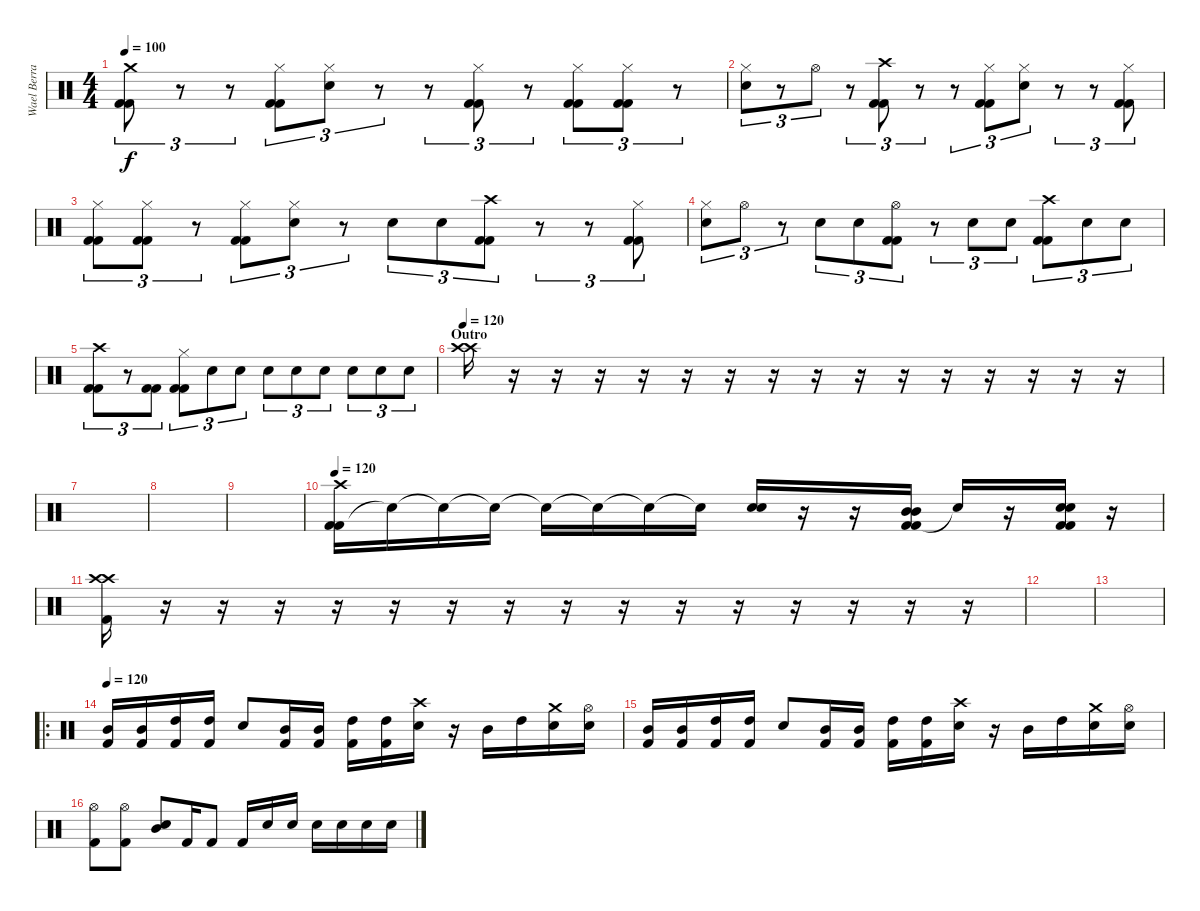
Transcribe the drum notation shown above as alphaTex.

\track ("Wael Berrais" "Wael Berra") {instrument percussion}
\staff {score}
\articulation defaults
\ts (4 4)
\tempo 100
\clef neutral
\ks c
("Crash medium (hit)" "Kick (hit) 2" "Kick (hit) 2").8{tu (3 2) dy f} r.8{tu (3 2)} r.8{tu (3 2)} ("Hi-Hat (closed)" "Kick (hit) 2" "Kick (hit) 2").8{tu (3 2)} ("Hi-Hat (closed)" "Electric Snare (hit)").8{tu (3 2)} r.8{tu (3 2)} r.8{tu (3 2)} ("Kick (hit) 2" "Kick (hit) 2" "Hi-Hat (closed)").8{tu (3 2)} r.8{tu (3 2)} ("Hi-Hat (closed)" "Kick (hit) 2" "Kick (hit) 2").8{tu (3 2)} ("Hi-Hat (closed)" "Kick (hit) 2" "Kick (hit) 2").8{tu (3 2)} r.8{tu (3 2)} |
("Electric Snare (hit)" "Hi-Hat (closed)").8{tu (3 2)} r.8{tu (3 2)} "Hi-Hat (open)".8{tu (3 2)} r.8{tu (3 2)} ("Crash high (hit)" "Kick (hit) 2" "Kick (hit) 2").8{tu (3 2)} r.8{tu (3 2)} r.8{tu (3 2)} ("Hi-Hat (closed)" "Kick (hit) 2" "Kick (hit) 2").8{tu (3 2)} ("Hi-Hat (closed)" "Electric Snare (hit)").8{tu (3 2)} r.8{tu (3 2)} r.8{tu (3 2)} ("Kick (hit) 2" "Kick (hit) 2" "Hi-Hat (closed)").8{tu (3 2)} |
("Hi-Hat (closed)" "Kick (hit) 2" "Kick (hit) 2").8{tu (3 2)} ("Hi-Hat (closed)" "Kick (hit) 2" "Kick (hit) 2").8{tu (3 2)} r.8{tu (3 2)} ("Hi-Hat (closed)" "Kick (hit) 2" "Kick (hit) 2").8{tu (3 2)} ("Electric Snare (hit)" "Hi-Hat (closed)").8{tu (3 2)} r.8{tu (3 2)} "Electric Snare (hit)".8{tu (3 2)} "Electric Snare (hit)".8{tu (3 2)} ("Crash high (hit)" "Kick (hit) 2" "Kick (hit) 2").8{tu (3 2)} r.8{tu (3 2)} r.8{tu (3 2)} ("Hi-Hat (closed)" "Kick (hit) 2" "Kick (hit) 2").8{tu (3 2)} |
("Electric Snare (hit)" "Hi-Hat (closed)").8{tu (3 2)} "Hi-Hat (open)".8{tu (3 2)} r.8{tu (3 2)} "Electric Snare (hit)".8{tu (3 2)} "Electric Snare (hit)".8{tu (3 2)} ("Hi-Hat (open)" "Kick (hit) 2" "Kick (hit) 2").8{tu (3 2)} r.8{tu (3 2)} "Electric Snare (hit)".8{tu (3 2)} "Electric Snare (hit)".8{tu (3 2)} ("Crash high (hit)" "Kick (hit) 2" "Kick (hit) 2").8{tu (3 2)} "Electric Snare (hit)".8{tu (3 2)} "Electric Snare (hit)".8{tu (3 2)} |
("Crash high (hit)" "Kick (hit) 2" "Kick (hit) 2").8{tu (3 2)} r.8{tu (3 2)} ("Kick (hit) 2" "Kick (hit) 2").8{tu (3 2)} ("Hi-Hat (closed)" "Kick (hit) 2" "Kick (hit) 2").8{tu (3 2)} "Electric Snare (hit)".8{tu (3 2)} "Electric Snare (hit)".8{tu (3 2)} "Electric Snare (hit)".8{tu (3 2)} "Electric Snare (hit)".8{tu (3 2)} "Electric Snare (hit)".8{tu (3 2)} "Electric Snare (hit)".8{tu (3 2)} "Electric Snare (hit)".8{tu (3 2)} "Electric Snare (hit)".8{tu (3 2)} |
\section ("" "Outro")
\tempo 120
("Crash high (hit)" "Crash high (hit)").16 r.16 r.16 r.16 r.16 r.16 r.16 r.16 r.16 r.16 r.16 r.16 r.16 r.16 r.16 r.16 |
|
|
|
\tempo 120
("Kick (hit) 2" "Kick (hit) 2" "Crash high (hit)").16 "Snare (hit)"{t}.16 "Snare (hit)"{t}.16 "Snare (hit)"{t}.16 "Snare (hit)"{t}.16 "Snare (hit)"{t}.16 "Snare (hit)"{t}.16 "Snare (hit)"{t}.16 ("Electric Snare (hit)" "Electric Snare (hit)").16 r.16 r.16 ("Kick (hit) 2" "Kick (hit) 2" "Mid Tom (hit)" "Mid Tom (hit)").16 "Snare (hit)"{t}.16 r.16 ("Kick (hit) 2" "Kick (hit) 2" "Electric Snare (hit)" "Electric Snare (hit)").16 r.16 |
("Kick (hit) 2" "Crash high (hit)" "Crash high (hit)").16 r.16 r.16 r.16 r.16 r.16 r.16 r.16 r.16 r.16 r.16 r.16 r.16 r.16 r.16 r.16 |
|
|
\ro
\tempo 120
("Mid Tom (hit)" "Kick (hit) 2").16 ("Mid Tom (hit)" "Kick (hit) 2").16 ("High Tom (hit)" "Kick (hit) 2").16 ("High Tom (hit)" "Kick (hit) 2").16 "Electric Snare (hit)".8 ("Mid Tom (hit)" "Kick (hit) 2").16 ("Mid Tom (hit)" "Kick (hit) 2").16 ("High Tom (hit)" "Kick (hit) 2").16 ("High Tom (hit)" "Kick (hit) 2").16 ("Electric Snare (hit)" "Crash high (hit)").16 r.16 "Mid Tom (hit)".16 "High Tom (hit)".16 ("Electric Snare (hit)" "Crash medium (hit)").16 ("Hi-Hat (open)" "Electric Snare (hit)").16 |
("Mid Tom (hit)" "Kick (hit) 2").16 ("Mid Tom (hit)" "Kick (hit) 2").16 ("High Tom (hit)" "Kick (hit) 2").16 ("High Tom (hit)" "Kick (hit) 2").16 "Electric Snare (hit)".8 ("Mid Tom (hit)" "Kick (hit) 2").16 ("Mid Tom (hit)" "Kick (hit) 2").16 ("High Tom (hit)" "Kick (hit) 2").16 ("High Tom (hit)" "Kick (hit) 2").16 ("Electric Snare (hit)" "Crash high (hit)").16 r.16 "Mid Tom (hit)".16 "High Tom (hit)".16 ("Electric Snare (hit)" "Crash medium (hit)").16 ("Hi-Hat (open)" "Electric Snare (hit)").16 |
("Hi-Hat (open)" "Kick (hit) 2").8 ("Hi-Hat (open)" "Kick (hit) 2").8 ("Mid Tom (hit)" "Electric Snare (hit)").8 "Kick (hit) 2".16 "Kick (hit) 2".8 "Kick (hit) 2".16 "Electric Snare (hit)".16 "Electric Snare (hit)".16 "Electric Snare (hit)".16 "Electric Snare (hit)".16 "Electric Snare (hit)".16 "Electric Snare (hit)".16
